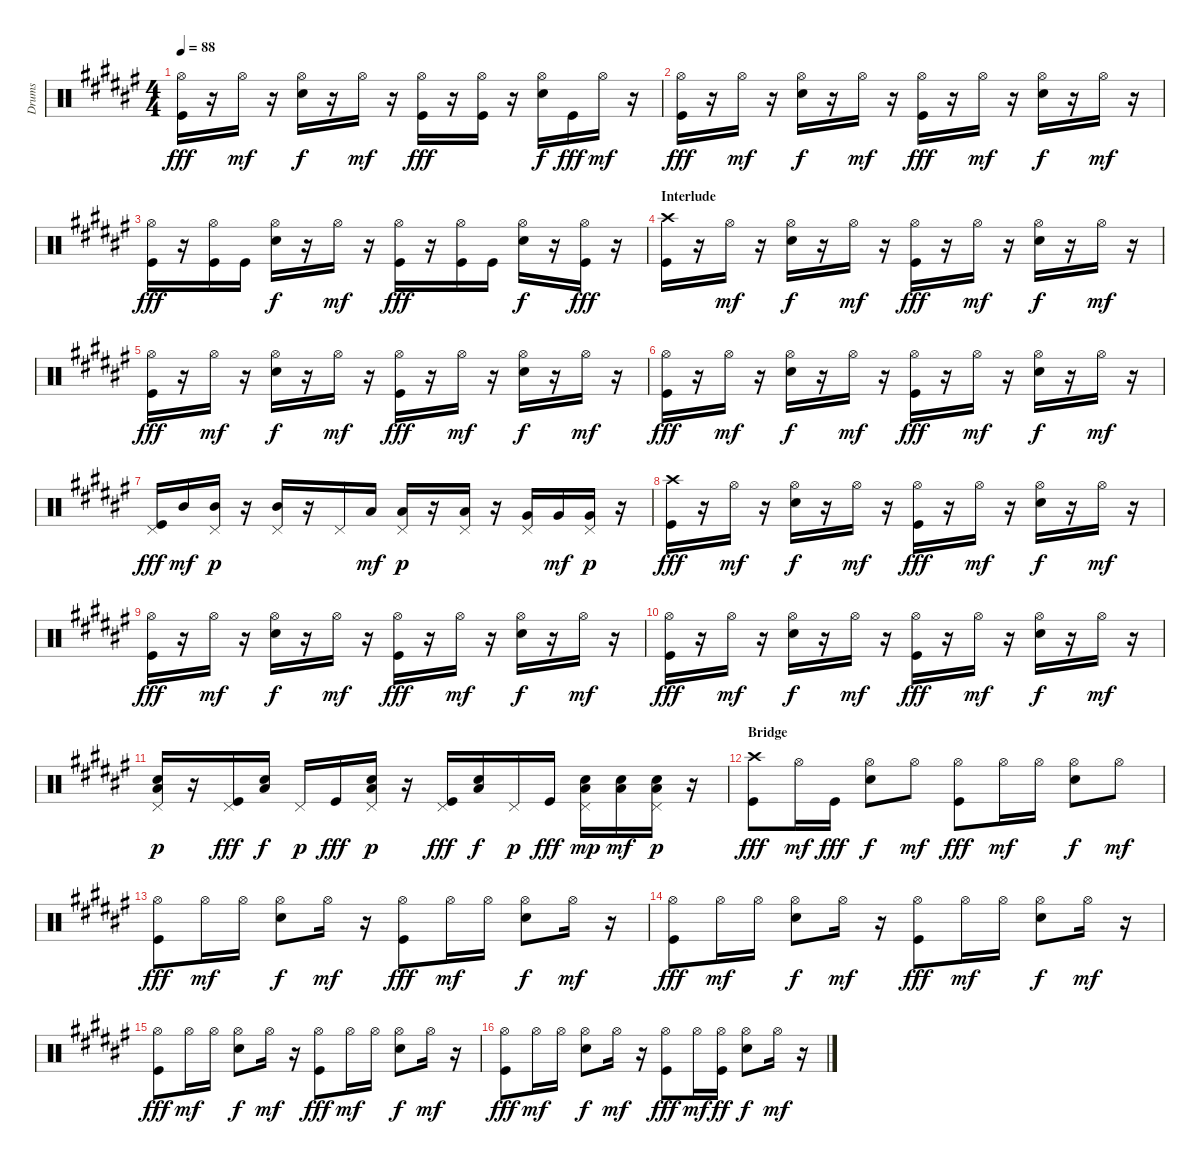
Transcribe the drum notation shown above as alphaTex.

\track ("Drums" "Drums") {instrument percussion}
\staff {score}
\articulation defaults
\ts (4 4)
\tempo 88
\clef neutral
\ks f#
("Hi-Hat (open)" "Kick (hit)").16{dy fff} r.16 "Hi-Hat (open)".16{dy mf} r.16 ("Hi-Hat (open)" "Snare (hit) 2").16{dy f} r.16 "Hi-Hat (open)".16{dy mf} r.16 ("Hi-Hat (open)" "Kick (hit)").16{dy fff} r.16 ("Hi-Hat (open)" "Kick (hit)").16 r.16 ("Hi-Hat (open)" "Snare (hit) 2").16{dy f} "Kick (hit)".16{dy fff} "Hi-Hat (open)".16{dy mf} r.16 |
("Hi-Hat (open)" "Kick (hit)").16{dy fff} r.16 "Hi-Hat (open)".16{dy mf} r.16 ("Hi-Hat (open)" "Snare (hit) 2").16{dy f} r.16 "Hi-Hat (open)".16{dy mf} r.16 ("Hi-Hat (open)" "Kick (hit)").16{dy fff} r.16 "Hi-Hat (open)".16{dy mf} r.16 ("Hi-Hat (open)" "Snare (hit) 2").16{dy f} r.16 "Hi-Hat (open)".16{dy mf} r.16 |
("Hi-Hat (open)" "Kick (hit)").16{dy fff} r.16 ("Hi-Hat (open)" "Kick (hit)").16 "Kick (hit)".16 ("Hi-Hat (open)" "Snare (hit) 2").16{dy f} r.16 "Hi-Hat (open)".16{dy mf} r.16 ("Hi-Hat (open)" "Kick (hit)").16{dy fff} r.16 ("Hi-Hat (open)" "Kick (hit)").16 "Kick (hit)".16 ("Hi-Hat (open)" "Snare (hit) 2").16{dy f} r.16 ("Hi-Hat (open)" "Kick (hit)").16{dy fff} r.16 |
\section ("" "Interlude")
("Crash high (hit)" "Kick (hit)").16 r.16 "Hi-Hat (open)".16{dy mf} r.16 ("Hi-Hat (open)" "Snare (hit) 2").16{dy f} r.16 "Hi-Hat (open)".16{dy mf} r.16 ("Hi-Hat (open)" "Kick (hit)").16{dy fff} r.16 "Hi-Hat (open)".16{dy mf} r.16 ("Hi-Hat (open)" "Snare (hit) 2").16{dy f} r.16 "Hi-Hat (open)".16{dy mf} r.16 |
("Hi-Hat (open)" "Kick (hit)").16{dy fff} r.16 "Hi-Hat (open)".16{dy mf} r.16 ("Hi-Hat (open)" "Snare (hit) 2").16{dy f} r.16 "Hi-Hat (open)".16{dy mf} r.16 ("Hi-Hat (open)" "Kick (hit)").16{dy fff} r.16 "Hi-Hat (open)".16{dy mf} r.16 ("Hi-Hat (open)" "Snare (hit) 2").16{dy f} r.16 "Hi-Hat (open)".16{dy mf} r.16 |
("Hi-Hat (open)" "Kick (hit)").16{dy fff} r.16 "Hi-Hat (open)".16{dy mf} r.16 ("Hi-Hat (open)" "Snare (hit) 2").16{dy f} r.16 "Hi-Hat (open)".16{dy mf} r.16 ("Hi-Hat (open)" "Kick (hit)").16{dy fff} r.16 "Hi-Hat (open)".16{dy mf} r.16 ("Hi-Hat (open)" "Snare (hit) 2").16{dy f} r.16 "Hi-Hat (open)".16{dy mf} r.16 |
("Pedal Hi-Hat (hit)" "Kick (hit)").16{dy fff} "Mid Tom (hit)".16{dy mf} ("Pedal Hi-Hat (hit)" "Mid Tom (hit)").16{dy p} r.16 ("Pedal Hi-Hat (hit)" "Mid Tom (hit)").16 r.16 "Pedal Hi-Hat (hit)".16 "Low Tom (hit)".16{dy mf} ("Pedal Hi-Hat (hit)" "Low Tom (hit)").16{dy p} r.16 ("Pedal Hi-Hat (hit)" "Low Tom (hit)").16 r.16 ("Pedal Hi-Hat (hit)" "Very Low Tom (hit)").16 "Very Low Tom (hit)".16{dy mf} ("Pedal Hi-Hat (hit)" "Very Low Tom (hit)").16{dy p} r.16 |
("Crash high (hit)" "Kick (hit)").16{dy fff} r.16 "Hi-Hat (open)".16{dy mf} r.16 ("Hi-Hat (open)" "Snare (hit) 2").16{dy f} r.16 "Hi-Hat (open)".16{dy mf} r.16 ("Hi-Hat (open)" "Kick (hit)").16{dy fff} r.16 "Hi-Hat (open)".16{dy mf} r.16 ("Hi-Hat (open)" "Snare (hit) 2").16{dy f} r.16 "Hi-Hat (open)".16{dy mf} r.16 |
("Hi-Hat (open)" "Kick (hit)").16{dy fff} r.16 "Hi-Hat (open)".16{dy mf} r.16 ("Hi-Hat (open)" "Snare (hit) 2").16{dy f} r.16 "Hi-Hat (open)".16{dy mf} r.16 ("Hi-Hat (open)" "Kick (hit)").16{dy fff} r.16 "Hi-Hat (open)".16{dy mf} r.16 ("Hi-Hat (open)" "Snare (hit) 2").16{dy f} r.16 "Hi-Hat (open)".16{dy mf} r.16 |
("Hi-Hat (open)" "Kick (hit)").16{dy fff} r.16 "Hi-Hat (open)".16{dy mf} r.16 ("Hi-Hat (open)" "Snare (hit) 2").16{dy f} r.16 "Hi-Hat (open)".16{dy mf} r.16 ("Hi-Hat (open)" "Kick (hit)").16{dy fff} r.16 "Hi-Hat (open)".16{dy mf} r.16 ("Hi-Hat (open)" "Snare (hit) 2").16{dy f} r.16 "Hi-Hat (open)".16{dy mf} r.16 |
("Pedal Hi-Hat (hit)" "Low Tom (hit)" "Snare (hit) 2").16{dy p} r.16 ("Pedal Hi-Hat (hit)" "Kick (hit)").16{dy fff} ("Low Tom (hit)" "Snare (hit) 2").16{dy f} "Pedal Hi-Hat (hit)".16{dy p} "Kick (hit)".16{dy fff} ("Pedal Hi-Hat (hit)" "Low Tom (hit)" "Snare (hit) 2").16{dy p} r.16 ("Pedal Hi-Hat (hit)" "Kick (hit)").16{dy fff} ("Low Tom (hit)" "Snare (hit) 2").16{dy f} "Pedal Hi-Hat (hit)".16{dy p} "Kick (hit)".16{dy fff} ("Pedal Hi-Hat (hit)" "Low Tom (hit)" "Snare (hit) 2").16{dy mp} ("Low Tom (hit)" "Snare (hit) 2").16{dy mf} ("Pedal Hi-Hat (hit)" "Low Tom (hit)" "Snare (hit) 2").16{dy p} r.16 |
\section ("" "Bridge")
("Crash high (hit)" "Kick (hit)").8{dy fff} "Hi-Hat (open)".16{dy mf} "Kick (hit)".16{dy fff} ("Hi-Hat (open)" "Snare (hit) 2").8{dy f} "Hi-Hat (open)".8{dy mf} ("Hi-Hat (open)" "Kick (hit)").8{dy fff} "Hi-Hat (open)".16{dy mf} "Hi-Hat (open)".16 ("Hi-Hat (open)" "Snare (hit) 2").8{dy f} "Hi-Hat (open)".8{dy mf} |
("Hi-Hat (open)" "Kick (hit)").8{dy fff} "Hi-Hat (open)".16{dy mf} "Hi-Hat (open)".16 ("Hi-Hat (open)" "Snare (hit) 2").8{dy f} "Hi-Hat (open)".16{dy mf} r.16 ("Hi-Hat (open)" "Kick (hit)").8{dy fff} "Hi-Hat (open)".16{dy mf} "Hi-Hat (open)".16 ("Hi-Hat (open)" "Snare (hit) 2").8{dy f} "Hi-Hat (open)".16{dy mf} r.16 |
("Hi-Hat (open)" "Kick (hit)").8{dy fff} "Hi-Hat (open)".16{dy mf} "Hi-Hat (open)".16 ("Hi-Hat (open)" "Snare (hit) 2").8{dy f} "Hi-Hat (open)".16{dy mf} r.16 ("Hi-Hat (open)" "Kick (hit)").8{dy fff} "Hi-Hat (open)".16{dy mf} "Hi-Hat (open)".16 ("Hi-Hat (open)" "Snare (hit) 2").8{dy f} "Hi-Hat (open)".16{dy mf} r.16 |
("Hi-Hat (open)" "Kick (hit)").8{dy fff} "Hi-Hat (open)".16{dy mf} "Hi-Hat (open)".16 ("Hi-Hat (open)" "Snare (hit) 2").8{dy f} "Hi-Hat (open)".16{dy mf} r.16 ("Hi-Hat (open)" "Kick (hit)").8{dy fff} "Hi-Hat (open)".16{dy mf} "Hi-Hat (open)".16 ("Hi-Hat (open)" "Snare (hit) 2").8{dy f} "Hi-Hat (open)".16{dy mf} r.16 |
("Hi-Hat (open)" "Kick (hit)").8{dy fff} "Hi-Hat (open)".16{dy mf} "Hi-Hat (open)".16 ("Hi-Hat (open)" "Snare (hit) 2").8{dy f} "Hi-Hat (open)".16{dy mf} r.16 ("Hi-Hat (open)" "Kick (hit)").8{dy fff} "Hi-Hat (open)".16{dy mf} ("Hi-Hat (open)" "Kick (hit)").16{dy ff} ("Hi-Hat (open)" "Snare (hit) 2").8{dy f} "Hi-Hat (open)".16{dy mf} r.16
